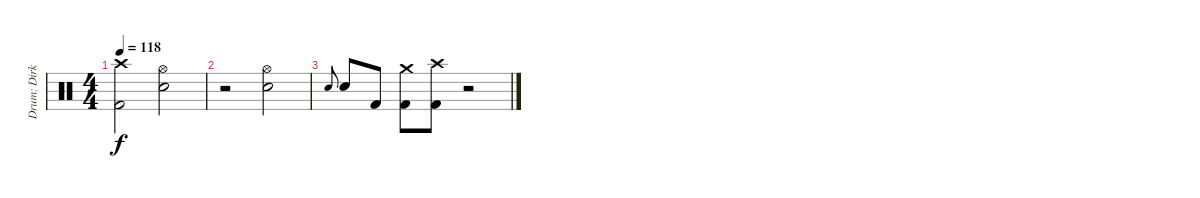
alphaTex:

\track ("Drum: Dirk" "Drum: Dirk") {instrument percussion}
\staff {score}
\articulation defaults
\ts (4 4)
\tempo 118
\clef neutral
\ks c
("Crash high (hit)" "Kick (hit) 2").2{dy f} ("Hi-Hat (open)" "Electric Snare (hit)").2 |
r.2 ("Hi-Hat (open)" "Electric Snare (hit)").2 |
"Electric Snare (hit)".8{gr onbeat} "Electric Snare (hit)".8 "Kick (hit) 2".8 ("Crash medium (hit)" "Kick (hit) 2").8 ("Crash high (hit)" "Kick (hit) 2").8 r.2
